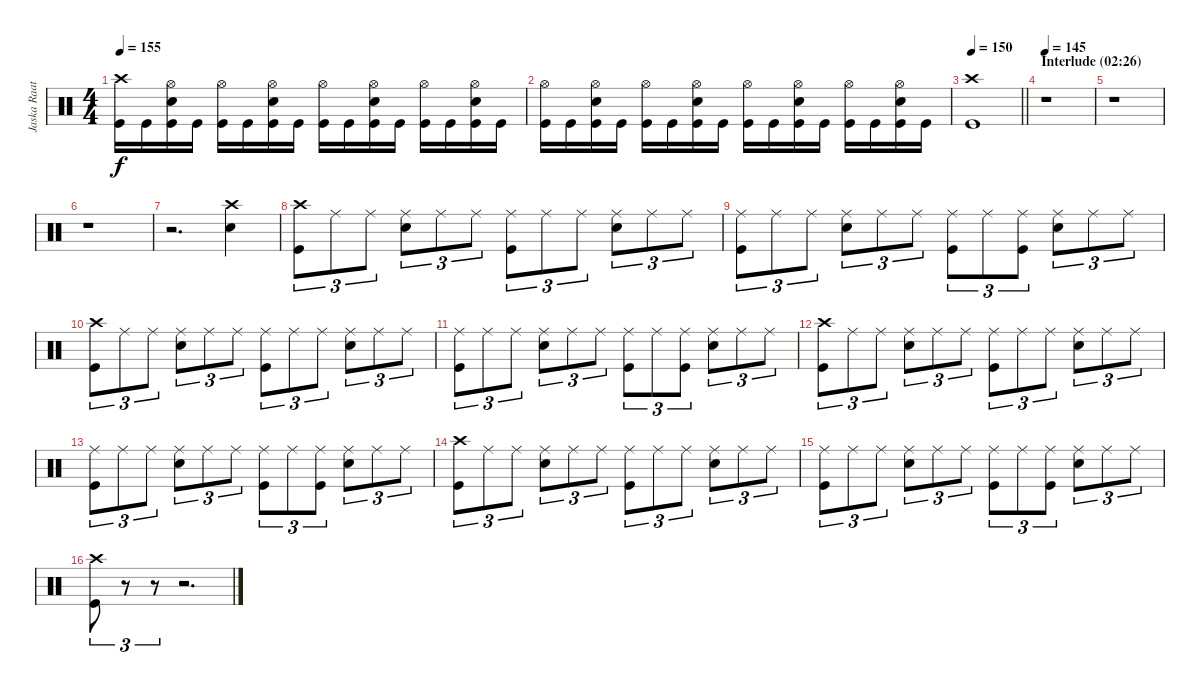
\track ("Jaska Raatikainen" "Jaska Raat") {instrument percussion}
\staff {score}
\articulation defaults
\ts (4 4)
\tempo 155
\clef neutral
\ks c
("Crash high (hit)" "Kick (hit)").16{dy f} "Kick (hit)".16 ("Hi-Hat (open)" "Electric Snare (hit)" "Kick (hit)").16 "Kick (hit)".16 ("Hi-Hat (open)" "Kick (hit)").16 "Kick (hit)".16 ("Hi-Hat (open)" "Electric Snare (hit)" "Kick (hit)").16 "Kick (hit)".16 ("Hi-Hat (open)" "Kick (hit)").16 "Kick (hit)".16 ("Hi-Hat (open)" "Electric Snare (hit)" "Kick (hit)").16 "Kick (hit)".16 ("Hi-Hat (open)" "Kick (hit)").16 "Kick (hit)".16 ("Hi-Hat (open)" "Electric Snare (hit)" "Kick (hit)").16 "Kick (hit)".16 |
("Hi-Hat (open)" "Kick (hit)").16 "Kick (hit)".16 ("Hi-Hat (open)" "Electric Snare (hit)" "Kick (hit)").16 "Kick (hit)".16 ("Hi-Hat (open)" "Kick (hit)").16 "Kick (hit)".16 ("Hi-Hat (open)" "Electric Snare (hit)" "Kick (hit)").16 "Kick (hit)".16 ("Hi-Hat (open)" "Kick (hit)").16 "Kick (hit)".16 ("Hi-Hat (open)" "Electric Snare (hit)" "Kick (hit)").16 "Kick (hit)".16 ("Hi-Hat (open)" "Kick (hit)").16 "Kick (hit)".16 ("Hi-Hat (open)" "Electric Snare (hit)" "Kick (hit)").16 "Kick (hit)".16 |
\tempo 150
\barLineRight lightlight
("Crash high (hit)" "Kick (hit)").1 |
\section ("" "Interlude (02:26)")
\tempo 145
r.1 |
r.1 |
r.1 |
r.2{d} ("Crash high (hit)" "Electric Snare (hit)").4 |
("Crash high (hit)" "Kick (hit)").8{tu (3 2)} "Ride (middle)".8{tu (3 2)} "Ride (middle)".8{tu (3 2)} ("Ride (middle)" "Electric Snare (hit)").8{tu (3 2)} "Ride (middle)".8{tu (3 2)} "Ride (middle)".8{tu (3 2)} ("Ride (middle)" "Kick (hit)").8{tu (3 2)} "Ride (middle)".8{tu (3 2)} "Ride (middle)".8{tu (3 2)} ("Ride (middle)" "Electric Snare (hit)").8{tu (3 2)} "Ride (middle)".8{tu (3 2)} "Ride (middle)".8{tu (3 2)} |
("Ride (middle)" "Kick (hit)").8{tu (3 2)} "Ride (middle)".8{tu (3 2)} "Ride (middle)".8{tu (3 2)} ("Ride (middle)" "Electric Snare (hit)").8{tu (3 2)} "Ride (middle)".8{tu (3 2)} "Ride (middle)".8{tu (3 2)} ("Ride (middle)" "Kick (hit)").8{tu (3 2)} "Ride (middle)".8{tu (3 2)} ("Ride (middle)" "Kick (hit)").8{tu (3 2)} ("Ride (middle)" "Electric Snare (hit)").8{tu (3 2)} "Ride (middle)".8{tu (3 2)} "Ride (middle)".8{tu (3 2)} |
("Crash high (hit)" "Kick (hit)").8{tu (3 2)} "Ride (middle)".8{tu (3 2)} "Ride (middle)".8{tu (3 2)} ("Ride (middle)" "Electric Snare (hit)").8{tu (3 2)} "Ride (middle)".8{tu (3 2)} "Ride (middle)".8{tu (3 2)} ("Ride (middle)" "Kick (hit)").8{tu (3 2)} "Ride (middle)".8{tu (3 2)} "Ride (middle)".8{tu (3 2)} ("Ride (middle)" "Electric Snare (hit)").8{tu (3 2)} "Ride (middle)".8{tu (3 2)} "Ride (middle)".8{tu (3 2)} |
("Ride (middle)" "Kick (hit)").8{tu (3 2)} "Ride (middle)".8{tu (3 2)} "Ride (middle)".8{tu (3 2)} ("Ride (middle)" "Electric Snare (hit)").8{tu (3 2)} "Ride (middle)".8{tu (3 2)} "Ride (middle)".8{tu (3 2)} ("Ride (middle)" "Kick (hit)").8{tu (3 2)} "Ride (middle)".8{tu (3 2)} ("Ride (middle)" "Kick (hit)").8{tu (3 2)} ("Ride (middle)" "Electric Snare (hit)").8{tu (3 2)} "Ride (middle)".8{tu (3 2)} "Ride (middle)".8{tu (3 2)} |
("Crash high (hit)" "Kick (hit)").8{tu (3 2)} "Ride (middle)".8{tu (3 2)} "Ride (middle)".8{tu (3 2)} ("Ride (middle)" "Electric Snare (hit)").8{tu (3 2)} "Ride (middle)".8{tu (3 2)} "Ride (middle)".8{tu (3 2)} ("Ride (middle)" "Kick (hit)").8{tu (3 2)} "Ride (middle)".8{tu (3 2)} "Ride (middle)".8{tu (3 2)} ("Ride (middle)" "Electric Snare (hit)").8{tu (3 2)} "Ride (middle)".8{tu (3 2)} "Ride (middle)".8{tu (3 2)} |
("Ride (middle)" "Kick (hit)").8{tu (3 2)} "Ride (middle)".8{tu (3 2)} "Ride (middle)".8{tu (3 2)} ("Ride (middle)" "Electric Snare (hit)").8{tu (3 2)} "Ride (middle)".8{tu (3 2)} "Ride (middle)".8{tu (3 2)} ("Ride (middle)" "Kick (hit)").8{tu (3 2)} "Ride (middle)".8{tu (3 2)} ("Ride (middle)" "Kick (hit)").8{tu (3 2)} ("Ride (middle)" "Electric Snare (hit)").8{tu (3 2)} "Ride (middle)".8{tu (3 2)} "Ride (middle)".8{tu (3 2)} |
("Crash high (hit)" "Kick (hit)").8{tu (3 2)} "Ride (middle)".8{tu (3 2)} "Ride (middle)".8{tu (3 2)} ("Ride (middle)" "Electric Snare (hit)").8{tu (3 2)} "Ride (middle)".8{tu (3 2)} "Ride (middle)".8{tu (3 2)} ("Ride (middle)" "Kick (hit)").8{tu (3 2)} "Ride (middle)".8{tu (3 2)} "Ride (middle)".8{tu (3 2)} ("Ride (middle)" "Electric Snare (hit)").8{tu (3 2)} "Ride (middle)".8{tu (3 2)} "Ride (middle)".8{tu (3 2)} |
("Ride (middle)" "Kick (hit)").8{tu (3 2)} "Ride (middle)".8{tu (3 2)} "Ride (middle)".8{tu (3 2)} ("Ride (middle)" "Electric Snare (hit)").8{tu (3 2)} "Ride (middle)".8{tu (3 2)} "Ride (middle)".8{tu (3 2)} ("Ride (middle)" "Kick (hit)").8{tu (3 2)} "Ride (middle)".8{tu (3 2)} ("Ride (middle)" "Kick (hit)").8{tu (3 2)} ("Ride (middle)" "Electric Snare (hit)").8{tu (3 2)} "Ride (middle)".8{tu (3 2)} "Ride (middle)".8{tu (3 2)} |
("Crash high (hit)" "Kick (hit)").8{tu (3 2)} r.8{tu (3 2)} r.8{tu (3 2)} r.2{d}
